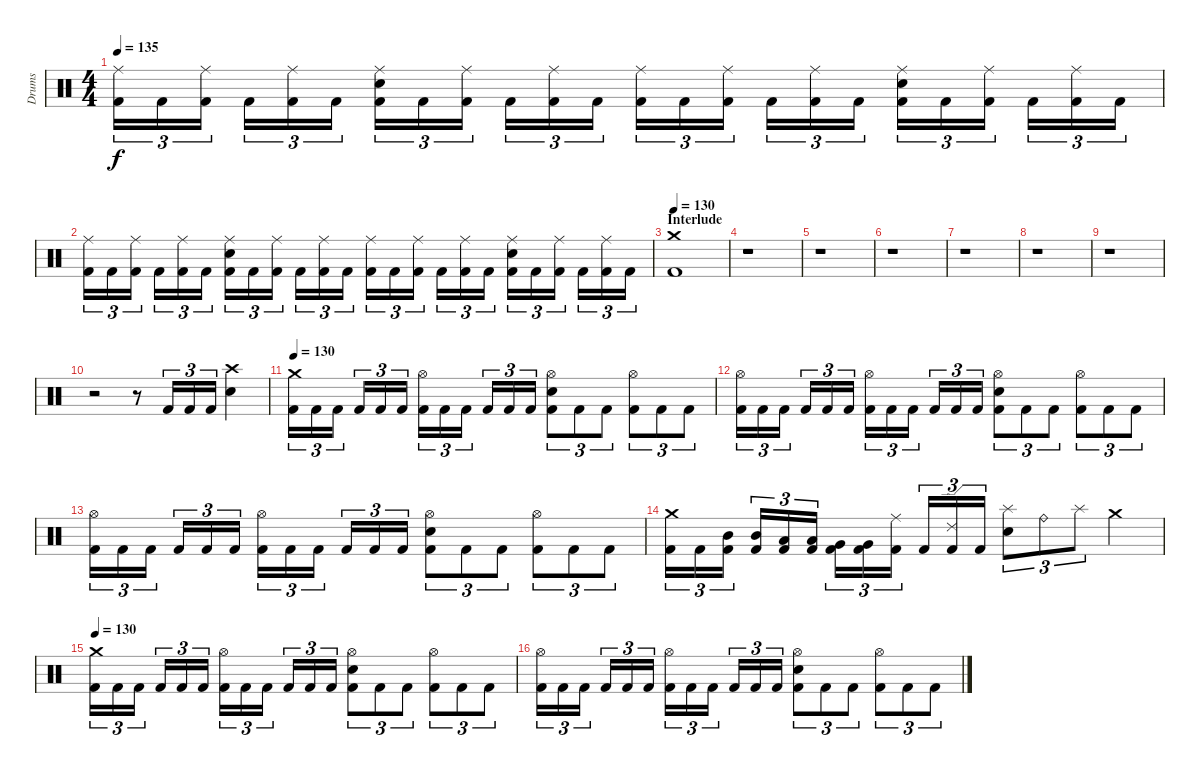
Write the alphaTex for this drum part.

\track ("Drums" "Drums") {instrument percussion}
\staff {score}
\articulation defaults
\ts (4 4)
\tempo 135
\clef neutral
\ks c
("Ride (middle)" "Kick (hit) 2").16{tu (3 2) dy f} "Kick (hit) 2".16{tu (3 2)} ("Ride (middle)" "Kick (hit) 2").16{tu (3 2)} "Kick (hit) 2".16{tu (3 2)} ("Ride (middle)" "Kick (hit) 2").16{tu (3 2)} "Kick (hit) 2".16{tu (3 2)} ("Ride (middle)" "Electric Snare (hit)" "Kick (hit) 2").16{tu (3 2)} "Kick (hit) 2".16{tu (3 2)} ("Ride (middle)" "Kick (hit) 2").16{tu (3 2)} "Kick (hit) 2".16{tu (3 2)} ("Ride (middle)" "Kick (hit) 2").16{tu (3 2)} "Kick (hit) 2".16{tu (3 2)} ("Ride (middle)" "Kick (hit) 2").16{tu (3 2)} "Kick (hit) 2".16{tu (3 2)} ("Ride (middle)" "Kick (hit) 2").16{tu (3 2)} "Kick (hit) 2".16{tu (3 2)} ("Ride (middle)" "Kick (hit) 2").16{tu (3 2)} "Kick (hit) 2".16{tu (3 2)} ("Ride (middle)" "Electric Snare (hit)" "Kick (hit) 2").16{tu (3 2)} "Kick (hit) 2".16{tu (3 2)} ("Ride (middle)" "Kick (hit) 2").16{tu (3 2)} "Kick (hit) 2".16{tu (3 2)} ("Ride (middle)" "Kick (hit) 2").16{tu (3 2)} "Kick (hit) 2".16{tu (3 2)} |
("Ride (middle)" "Kick (hit) 2").16{tu (3 2)} "Kick (hit) 2".16{tu (3 2)} ("Ride (middle)" "Kick (hit) 2").16{tu (3 2)} "Kick (hit) 2".16{tu (3 2)} ("Ride (middle)" "Kick (hit) 2").16{tu (3 2)} "Kick (hit) 2".16{tu (3 2)} ("Ride (middle)" "Electric Snare (hit)" "Kick (hit) 2").16{tu (3 2)} "Kick (hit) 2".16{tu (3 2)} ("Ride (middle)" "Kick (hit) 2").16{tu (3 2)} "Kick (hit) 2".16{tu (3 2)} ("Ride (middle)" "Kick (hit) 2").16{tu (3 2)} "Kick (hit) 2".16{tu (3 2)} ("Ride (middle)" "Kick (hit) 2").16{tu (3 2)} "Kick (hit) 2".16{tu (3 2)} ("Ride (middle)" "Kick (hit) 2").16{tu (3 2)} "Kick (hit) 2".16{tu (3 2)} ("Ride (middle)" "Kick (hit) 2").16{tu (3 2)} "Kick (hit) 2".16{tu (3 2)} ("Ride (middle)" "Electric Snare (hit)" "Kick (hit) 2").16{tu (3 2)} "Kick (hit) 2".16{tu (3 2)} ("Ride (middle)" "Kick (hit) 2").16{tu (3 2)} "Kick (hit) 2".16{tu (3 2)} ("Ride (middle)" "Kick (hit) 2").16{tu (3 2)} "Kick (hit) 2".16{tu (3 2)} |
\section ("" "Interlude")
\tempo 130
("Crash medium (hit)" "Kick (hit) 2").1 |
r.1 |
r.1 |
r.1 |
r.1 |
r.1 |
r.1 |
r.2 r.8 "Kick (hit) 2".16{tu (3 2)} "Kick (hit) 2".16{tu (3 2)} "Kick (hit) 2".16{tu (3 2)} ("Crash high (hit)" "Electric Snare (hit)").4 |
\tempo 130
("Crash medium (hit)" "Kick (hit) 2").16{tu (3 2)} "Kick (hit) 2".16{tu (3 2)} "Kick (hit) 2".16{tu (3 2)} "Kick (hit) 2".16{tu (3 2)} "Kick (hit) 2".16{tu (3 2)} "Kick (hit) 2".16{tu (3 2)} ("Hi-Hat (open)" "Kick (hit) 2").16{tu (3 2)} "Kick (hit) 2".16{tu (3 2)} "Kick (hit) 2".16{tu (3 2)} "Kick (hit) 2".16{tu (3 2)} "Kick (hit) 2".16{tu (3 2)} "Kick (hit) 2".16{tu (3 2)} ("Hi-Hat (open)" "Electric Snare (hit)" "Kick (hit) 2").8{tu (3 2)} "Kick (hit) 2".8{tu (3 2)} "Kick (hit) 2".8{tu (3 2)} ("Hi-Hat (open)" "Kick (hit) 2").8{tu (3 2)} "Kick (hit) 2".8{tu (3 2)} "Kick (hit) 2".8{tu (3 2)} |
("Hi-Hat (open)" "Kick (hit) 2").16{tu (3 2)} "Kick (hit) 2".16{tu (3 2)} "Kick (hit) 2".16{tu (3 2)} "Kick (hit) 2".16{tu (3 2)} "Kick (hit) 2".16{tu (3 2)} "Kick (hit) 2".16{tu (3 2)} ("Hi-Hat (open)" "Kick (hit) 2").16{tu (3 2)} "Kick (hit) 2".16{tu (3 2)} "Kick (hit) 2".16{tu (3 2)} "Kick (hit) 2".16{tu (3 2)} "Kick (hit) 2".16{tu (3 2)} "Kick (hit) 2".16{tu (3 2)} ("Hi-Hat (open)" "Electric Snare (hit)" "Kick (hit) 2").8{tu (3 2)} "Kick (hit) 2".8{tu (3 2)} "Kick (hit) 2".8{tu (3 2)} ("Hi-Hat (open)" "Kick (hit) 2").8{tu (3 2)} "Kick (hit) 2".8{tu (3 2)} "Kick (hit) 2".8{tu (3 2)} |
("Hi-Hat (open)" "Kick (hit) 2").16{tu (3 2)} "Kick (hit) 2".16{tu (3 2)} "Kick (hit) 2".16{tu (3 2)} "Kick (hit) 2".16{tu (3 2)} "Kick (hit) 2".16{tu (3 2)} "Kick (hit) 2".16{tu (3 2)} ("Hi-Hat (open)" "Kick (hit) 2").16{tu (3 2)} "Kick (hit) 2".16{tu (3 2)} "Kick (hit) 2".16{tu (3 2)} "Kick (hit) 2".16{tu (3 2)} "Kick (hit) 2".16{tu (3 2)} "Kick (hit) 2".16{tu (3 2)} ("Hi-Hat (open)" "Electric Snare (hit)" "Kick (hit) 2").8{tu (3 2)} "Kick (hit) 2".8{tu (3 2)} "Kick (hit) 2".8{tu (3 2)} ("Hi-Hat (open)" "Kick (hit) 2").8{tu (3 2)} "Kick (hit) 2".8{tu (3 2)} "Kick (hit) 2".8{tu (3 2)} |
("Crash medium (hit)" "Kick (hit) 2").16{tu (3 2)} "Kick (hit) 2".16{tu (3 2)} ("Mid Tom (hit)" "Kick (hit) 2").16{tu (3 2)} ("Mid Tom (hit)" "Kick (hit) 2").16{tu (3 2)} ("Low Tom (hit)" "Kick (hit) 2").16{tu (3 2)} ("Low Tom (hit)" "Kick (hit) 2").16{tu (3 2)} ("Very Low Tom (hit)" "Kick (hit) 2").16{tu (3 2)} ("Very Low Tom (hit)" "Kick (hit) 2").16{tu (3 2)} ("Ride (middle)" "Kick (hit) 2").16{tu (3 2)} "Kick (hit) 2".16{tu (3 2)} ("Ride (edge) 2" "Kick (hit) 2").16{tu (3 2)} "Kick (hit) 2".16{tu (3 2)} ("Splash (hit)" "Electric Snare (hit)").8{tu (3 2)} "Ride (bell)".8{tu (3 2)} "Splash (hit)".8{tu (3 2)} "Crash medium (hit)".4 |
\tempo 130
("Crash medium (hit)" "Kick (hit) 2").16{tu (3 2)} "Kick (hit) 2".16{tu (3 2)} "Kick (hit) 2".16{tu (3 2)} "Kick (hit) 2".16{tu (3 2)} "Kick (hit) 2".16{tu (3 2)} "Kick (hit) 2".16{tu (3 2)} ("Hi-Hat (open)" "Kick (hit) 2").16{tu (3 2)} "Kick (hit) 2".16{tu (3 2)} "Kick (hit) 2".16{tu (3 2)} "Kick (hit) 2".16{tu (3 2)} "Kick (hit) 2".16{tu (3 2)} "Kick (hit) 2".16{tu (3 2)} ("Hi-Hat (open)" "Electric Snare (hit)" "Kick (hit) 2").8{tu (3 2)} "Kick (hit) 2".8{tu (3 2)} "Kick (hit) 2".8{tu (3 2)} ("Hi-Hat (open)" "Kick (hit) 2").8{tu (3 2)} "Kick (hit) 2".8{tu (3 2)} "Kick (hit) 2".8{tu (3 2)} |
("Hi-Hat (open)" "Kick (hit) 2").16{tu (3 2)} "Kick (hit) 2".16{tu (3 2)} "Kick (hit) 2".16{tu (3 2)} "Kick (hit) 2".16{tu (3 2)} "Kick (hit) 2".16{tu (3 2)} "Kick (hit) 2".16{tu (3 2)} ("Hi-Hat (open)" "Kick (hit) 2").16{tu (3 2)} "Kick (hit) 2".16{tu (3 2)} "Kick (hit) 2".16{tu (3 2)} "Kick (hit) 2".16{tu (3 2)} "Kick (hit) 2".16{tu (3 2)} "Kick (hit) 2".16{tu (3 2)} ("Hi-Hat (open)" "Electric Snare (hit)" "Kick (hit) 2").8{tu (3 2)} "Kick (hit) 2".8{tu (3 2)} "Kick (hit) 2".8{tu (3 2)} ("Hi-Hat (open)" "Kick (hit) 2").8{tu (3 2)} "Kick (hit) 2".8{tu (3 2)} "Kick (hit) 2".8{tu (3 2)}
